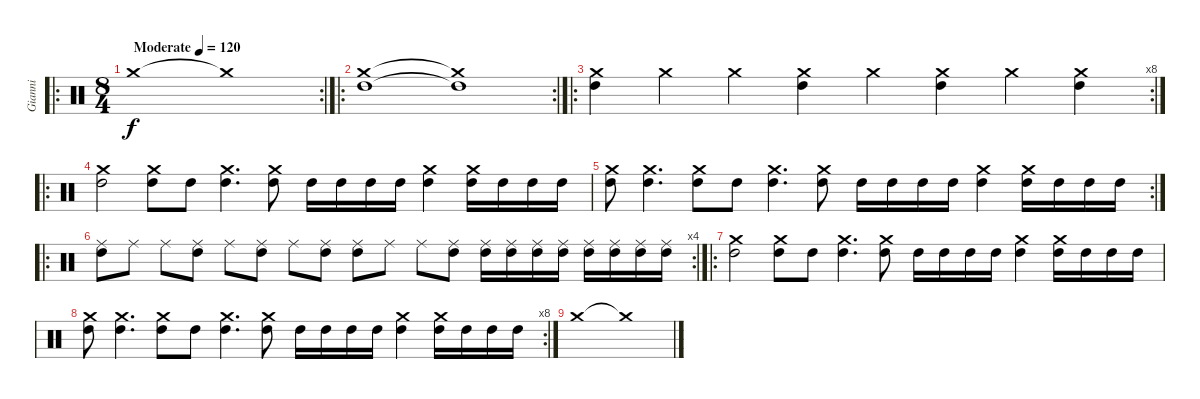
\track ("Gianni" "Gianni") {instrument percussion}
\staff {score}
\articulation defaults
\ro
\rc 2
\ts (8 4)
\tempo (120 "Moderate")
\clef neutral
\ks c "Crash medium (hit)".1{dy f} "Crash medium (hit)"{t}.1
|
\ro
\rc 2
("High Tom (hit)" "Crash medium (hit)").1 ("High Tom (hit)"{t} "Crash medium (hit)"{t}).1 |
\ro
\rc 8
("High Tom (hit)" "Crash medium (hit)").4 "Crash medium (hit)".4 "Crash medium (hit)".4 ("High Tom (hit)" "Crash medium (hit)").4 "Crash medium (hit)".4 ("High Tom (hit)" "Crash medium (hit)").4 "Crash medium (hit)".4 ("High Tom (hit)" "Crash medium (hit)").4 |
\ro
("High Tom (hit)" "Crash medium (hit)").2 ("High Tom (hit)" "Crash medium (hit)").8 "High Tom (hit)".8 ("High Tom (hit)" "Crash medium (hit)").4{d} ("High Tom (hit)" "Crash medium (hit)").8 "High Tom (hit)".16 "High Tom (hit)".16 "High Tom (hit)".16 "High Tom (hit)".16 ("High Tom (hit)" "Crash medium (hit)").4 ("High Tom (hit)" "Crash medium (hit)").16 "High Tom (hit)".16 "High Tom (hit)".16 "High Tom (hit)".16 |
\rc 2
("High Tom (hit)" "Crash medium (hit)").8 ("High Tom (hit)" "Crash medium (hit)").4{d} ("High Tom (hit)" "Crash medium (hit)").8 "High Tom (hit)".8 ("High Tom (hit)" "Crash medium (hit)").4{d} ("High Tom (hit)" "Crash medium (hit)").8 "High Tom (hit)".16 "High Tom (hit)".16 "High Tom (hit)".16 "High Tom (hit)".16 ("High Tom (hit)" "Crash medium (hit)").4 ("High Tom (hit)" "Crash medium (hit)").16 "High Tom (hit)".16 "High Tom (hit)".16 "High Tom (hit)".16 |
\ro
\rc 4
("High Tom (hit)" "Ride (middle)").8 "Ride (middle)".8 "Ride (middle)".8 ("High Tom (hit)" "Ride (middle)").8 "Ride (middle)".8 ("High Tom (hit)" "Ride (middle)").8 "Ride (middle)".8 ("High Tom (hit)" "Ride (middle)").8 ("High Tom (hit)" "Ride (middle)").8 "Ride (middle)".8 "Ride (middle)".8 ("High Tom (hit)" "Ride (middle)").8 ("High Tom (hit)" "Ride (middle)").16 ("High Tom (hit)" "Ride (middle)").16 ("High Tom (hit)" "Ride (middle)").16 ("High Tom (hit)" "Ride (middle)").16 ("High Tom (hit)" "Ride (middle)").16 ("High Tom (hit)" "Ride (middle)").16 ("High Tom (hit)" "Ride (middle)").16 ("High Tom (hit)" "Ride (middle)").16 |
\ro
("High Tom (hit)" "Crash medium (hit)").2 ("High Tom (hit)" "Crash medium (hit)").8 "High Tom (hit)".8 ("High Tom (hit)" "Crash medium (hit)").4{d} ("High Tom (hit)" "Crash medium (hit)").8 "High Tom (hit)".16 "High Tom (hit)".16 "High Tom (hit)".16 "High Tom (hit)".16 ("High Tom (hit)" "Crash medium (hit)").4 ("High Tom (hit)" "Crash medium (hit)").16 "High Tom (hit)".16 "High Tom (hit)".16 "High Tom (hit)".16 |
\rc 8
("High Tom (hit)" "Crash medium (hit)").8 ("High Tom (hit)" "Crash medium (hit)").4{d} ("High Tom (hit)" "Crash medium (hit)").8 "High Tom (hit)".8 ("High Tom (hit)" "Crash medium (hit)").4{d} ("High Tom (hit)" "Crash medium (hit)").8 "High Tom (hit)".16 "High Tom (hit)".16 "High Tom (hit)".16 "High Tom (hit)".16 ("High Tom (hit)" "Crash medium (hit)").4 ("High Tom (hit)" "Crash medium (hit)").16 "High Tom (hit)".16 "High Tom (hit)".16 "High Tom (hit)".16 |
"Crash medium (hit)".1 "Crash medium (hit)"{t}.1
